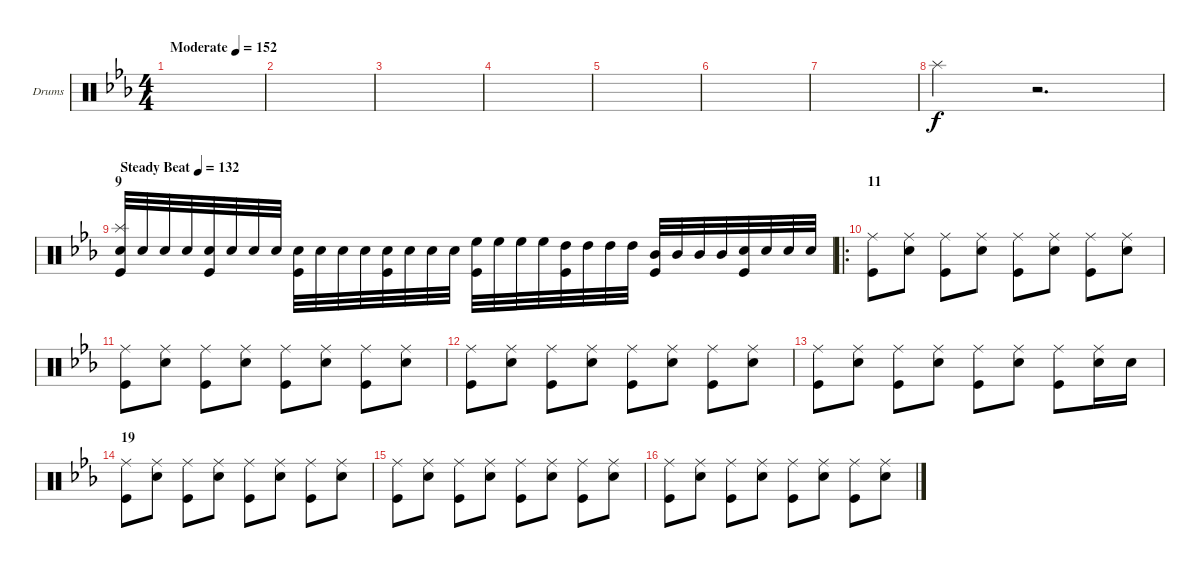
\bracketExtendMode groupsimilarinstruments
\firstSystemTrackNameOrientation horizontal
\otherSystemsTrackNameOrientation horizontal
\track ("Drumkit" "Drums") {instrument percussion}
\staff {score}
\articulation defaults
\ts (4 4)
\beaming (8 2 2 2 2)
\tempo (152 "Moderate")
\clef neutral
\ks eb
|
|
|
|
|
|
|
"Splash (hit)".4 r.2{d} |
\section ("" "9")
\tempo (132 "Steady Beat")
("Kick (hit)" "Snare (hit) 2" "Splash (hit)").32{beam invert} "Snare (hit) 2".32 "Snare (hit) 2".32 "Snare (hit) 2".32 ("Kick (hit)" "Snare (hit) 2").32 "Snare (hit) 2".32 "Snare (hit) 2".32 "Snare (hit) 2".32 ("Kick (hit)" "Snare (hit) 2").32 "Snare (hit) 2".32 "Snare (hit) 2".32 "Snare (hit) 2".32 ("Kick (hit)" "Snare (hit) 2").32 "Snare (hit) 2".32 "Snare (hit) 2".32 "Snare (hit) 2".32 ("Kick (hit)" "High Floor Tom (hit)").32{beam invert} "High Floor Tom (hit)".32 "High Floor Tom (hit)".32 "High Floor Tom (hit)".32 ("Kick (hit)" "High Tom (hit)").32 "High Tom (hit)".32 "High Tom (hit)".32 "High Tom (hit)".32 ("Kick (hit)" "Mid Tom (hit)").32 "Mid Tom (hit)".32 "Mid Tom (hit)".32 "Mid Tom (hit)".32 ("Kick (hit)" "Snare (hit) 2").32 "Snare (hit) 2".32 "Snare (hit) 2".32 "Snare (hit) 2".32 |
\ro
\section ("" "11")
("Kick (hit)" "Ride (middle)").8 ("Snare (hit) 2" "Ride (middle)").8 ("Kick (hit)" "Ride (middle)").8 ("Snare (hit) 2" "Ride (middle)").8 ("Kick (hit)" "Ride (middle)").8 ("Snare (hit) 2" "Ride (middle)").8 ("Kick (hit)" "Ride (middle)").8 ("Snare (hit) 2" "Ride (middle)").8 |
("Kick (hit)" "Ride (middle)").8 ("Snare (hit) 2" "Ride (middle)").8 ("Kick (hit)" "Ride (middle)").8 ("Snare (hit) 2" "Ride (middle)").8 ("Kick (hit)" "Ride (middle)").8 ("Snare (hit) 2" "Ride (middle)").8 ("Kick (hit)" "Ride (middle)").8 ("Snare (hit) 2" "Ride (middle)").8 |
("Kick (hit)" "Ride (middle)").8 ("Snare (hit) 2" "Ride (middle)").8 ("Kick (hit)" "Ride (middle)").8 ("Snare (hit) 2" "Ride (middle)").8 ("Kick (hit)" "Ride (middle)").8 ("Snare (hit) 2" "Ride (middle)").8 ("Kick (hit)" "Ride (middle)").8 ("Snare (hit) 2" "Ride (middle)").8 |
("Kick (hit)" "Ride (middle)").8 ("Snare (hit) 2" "Ride (middle)").8 ("Kick (hit)" "Ride (middle)").8 ("Snare (hit) 2" "Ride (middle)").8 ("Kick (hit)" "Ride (middle)").8 ("Snare (hit) 2" "Ride (middle)").8 ("Kick (hit)" "Ride (middle)").8 ("Snare (hit) 2" "Ride (middle)").16 "Snare (hit) 2".16 |
\section ("" "19")
("Kick (hit)" "Ride (middle)").8 ("Snare (hit) 2" "Ride (middle)").8 ("Kick (hit)" "Ride (middle)").8 ("Snare (hit) 2" "Ride (middle)").8 ("Kick (hit)" "Ride (middle)").8 ("Snare (hit) 2" "Ride (middle)").8 ("Kick (hit)" "Ride (middle)").8 ("Snare (hit) 2" "Ride (middle)").8 |
("Kick (hit)" "Ride (middle)").8 ("Snare (hit) 2" "Ride (middle)").8 ("Kick (hit)" "Ride (middle)").8 ("Snare (hit) 2" "Ride (middle)").8 ("Kick (hit)" "Ride (middle)").8 ("Snare (hit) 2" "Ride (middle)").8 ("Kick (hit)" "Ride (middle)").8 ("Snare (hit) 2" "Ride (middle)").8 |
("Kick (hit)" "Ride (middle)").8 ("Snare (hit) 2" "Ride (middle)").8 ("Kick (hit)" "Ride (middle)").8 ("Snare (hit) 2" "Ride (middle)").8 ("Kick (hit)" "Ride (middle)").8 ("Snare (hit) 2" "Ride (middle)").8 ("Kick (hit)" "Ride (middle)").8 ("Snare (hit) 2" "Ride (middle)").8
